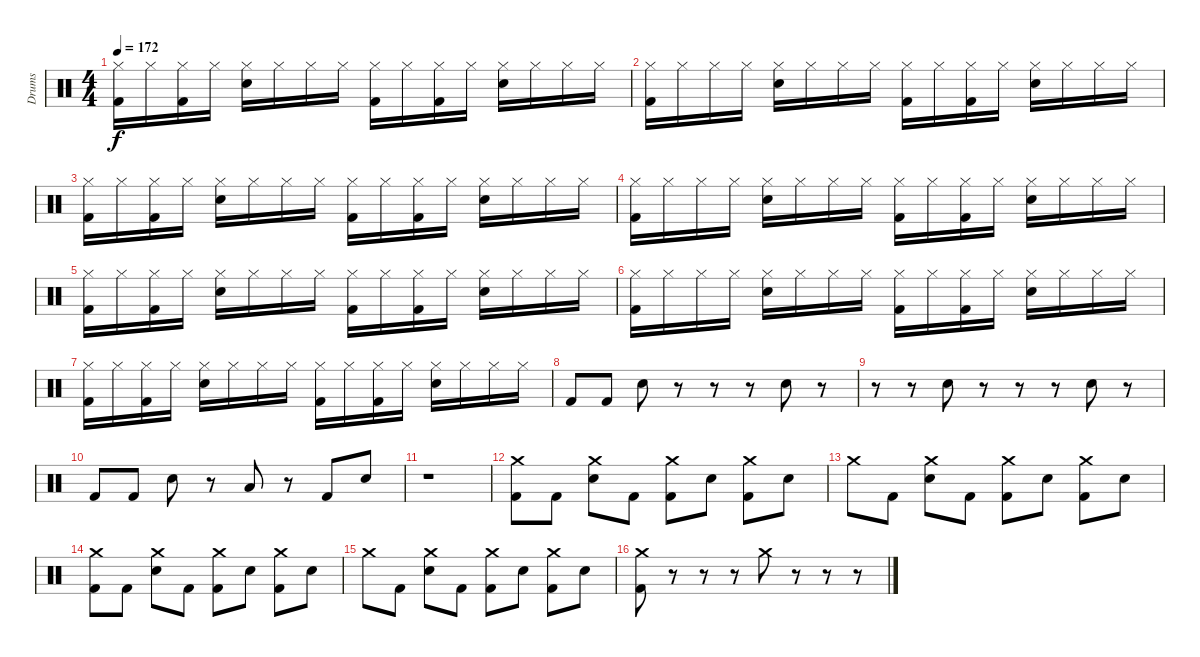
\track ("Drums" "Drums") {instrument percussion}
\staff {score}
\articulation defaults
\ts (4 4)
\tempo 172
\clef neutral
\ks c
("Hi-Hat (closed)" "Kick (hit) 2").16{dy f} "Hi-Hat (closed)".16 ("Hi-Hat (closed)" "Kick (hit) 2").16 "Hi-Hat (closed)".16 ("Hi-Hat (closed)" "Electric Snare (hit)").16 "Hi-Hat (closed)".16 "Hi-Hat (closed)".16 "Hi-Hat (closed)".16 ("Hi-Hat (closed)" "Kick (hit) 2").16 "Hi-Hat (closed)".16 ("Hi-Hat (closed)" "Kick (hit) 2").16 "Hi-Hat (closed)".16 ("Hi-Hat (closed)" "Electric Snare (hit)").16 "Hi-Hat (closed)".16 "Hi-Hat (closed)".16 "Hi-Hat (closed)".16 |
("Hi-Hat (closed)" "Kick (hit) 2").16 "Hi-Hat (closed)".16 "Hi-Hat (closed)".16 "Hi-Hat (closed)".16 ("Hi-Hat (closed)" "Electric Snare (hit)").16 "Hi-Hat (closed)".16 "Hi-Hat (closed)".16 "Hi-Hat (closed)".16 ("Hi-Hat (closed)" "Kick (hit) 2").16 "Hi-Hat (closed)".16 ("Hi-Hat (closed)" "Kick (hit) 2").16 "Hi-Hat (closed)".16 ("Hi-Hat (closed)" "Electric Snare (hit)").16 "Hi-Hat (closed)".16 "Hi-Hat (closed)".16 "Hi-Hat (closed)".16 |
("Hi-Hat (closed)" "Kick (hit) 2").16 "Hi-Hat (closed)".16 ("Hi-Hat (closed)" "Kick (hit) 2").16 "Hi-Hat (closed)".16 ("Hi-Hat (closed)" "Electric Snare (hit)").16 "Hi-Hat (closed)".16 "Hi-Hat (closed)".16 "Hi-Hat (closed)".16 ("Hi-Hat (closed)" "Kick (hit) 2").16 "Hi-Hat (closed)".16 ("Hi-Hat (closed)" "Kick (hit) 2").16 "Hi-Hat (closed)".16 ("Hi-Hat (closed)" "Electric Snare (hit)").16 "Hi-Hat (closed)".16 "Hi-Hat (closed)".16 "Hi-Hat (closed)".16 |
("Hi-Hat (closed)" "Kick (hit) 2").16 "Hi-Hat (closed)".16 "Hi-Hat (closed)".16 "Hi-Hat (closed)".16 ("Hi-Hat (closed)" "Electric Snare (hit)").16 "Hi-Hat (closed)".16 "Hi-Hat (closed)".16 "Hi-Hat (closed)".16 ("Hi-Hat (closed)" "Kick (hit) 2").16 "Hi-Hat (closed)".16 ("Hi-Hat (closed)" "Kick (hit) 2").16 "Hi-Hat (closed)".16 ("Hi-Hat (closed)" "Electric Snare (hit)").16 "Hi-Hat (closed)".16 "Hi-Hat (closed)".16 "Hi-Hat (closed)".16 |
("Hi-Hat (closed)" "Kick (hit) 2").16 "Hi-Hat (closed)".16 ("Hi-Hat (closed)" "Kick (hit) 2").16 "Hi-Hat (closed)".16 ("Hi-Hat (closed)" "Electric Snare (hit)").16 "Hi-Hat (closed)".16 "Hi-Hat (closed)".16 "Hi-Hat (closed)".16 ("Hi-Hat (closed)" "Kick (hit) 2").16 "Hi-Hat (closed)".16 ("Hi-Hat (closed)" "Kick (hit) 2").16 "Hi-Hat (closed)".16 ("Hi-Hat (closed)" "Electric Snare (hit)").16 "Hi-Hat (closed)".16 "Hi-Hat (closed)".16 "Hi-Hat (closed)".16 |
("Hi-Hat (closed)" "Kick (hit) 2").16 "Hi-Hat (closed)".16 "Hi-Hat (closed)".16 "Hi-Hat (closed)".16 ("Hi-Hat (closed)" "Electric Snare (hit)").16 "Hi-Hat (closed)".16 "Hi-Hat (closed)".16 "Hi-Hat (closed)".16 ("Hi-Hat (closed)" "Kick (hit) 2").16 "Hi-Hat (closed)".16 ("Hi-Hat (closed)" "Kick (hit) 2").16 "Hi-Hat (closed)".16 ("Hi-Hat (closed)" "Electric Snare (hit)").16 "Hi-Hat (closed)".16 "Hi-Hat (closed)".16 "Hi-Hat (closed)".16 |
("Hi-Hat (closed)" "Kick (hit) 2").16 "Hi-Hat (closed)".16 ("Hi-Hat (closed)" "Kick (hit) 2").16 "Hi-Hat (closed)".16 ("Hi-Hat (closed)" "Electric Snare (hit)").16 "Hi-Hat (closed)".16 "Hi-Hat (closed)".16 "Hi-Hat (closed)".16 ("Hi-Hat (closed)" "Kick (hit) 2").16 "Hi-Hat (closed)".16 ("Hi-Hat (closed)" "Kick (hit) 2").16 "Hi-Hat (closed)".16 ("Hi-Hat (closed)" "Electric Snare (hit)").16 "Hi-Hat (closed)".16 "Hi-Hat (closed)".16 "Hi-Hat (closed)".16 |
"Kick (hit) 2".8 "Kick (hit) 2".8 "Electric Snare (hit)".8 r.8 r.8 r.8 "Electric Snare (hit)".8 r.8 |
r.8 r.8 "Electric Snare (hit)".8 r.8 r.8 r.8 "Electric Snare (hit)".8 r.8 |
"Kick (hit) 2".8 "Kick (hit) 2".8 "Electric Snare (hit)".8 r.8 "Low Tom (hit)".8 r.8 "Kick (hit) 2".8 "Electric Snare (hit)".8 |
r.1 |
("Crash medium (hit)" "Kick (hit) 2").8 "Kick (hit) 2".8 ("Crash medium (hit)" "Electric Snare (hit)").8 "Kick (hit) 2".8 ("Crash medium (hit)" "Kick (hit) 2").8 "Electric Snare (hit)".8 ("Crash medium (hit)" "Kick (hit) 2").8 "Electric Snare (hit)".8 |
"Crash medium (hit)".8 "Kick (hit) 2".8 ("Crash medium (hit)" "Electric Snare (hit)").8 "Kick (hit) 2".8 ("Crash medium (hit)" "Kick (hit) 2").8 "Electric Snare (hit)".8 ("Crash medium (hit)" "Kick (hit) 2").8 "Electric Snare (hit)".8 |
("Crash medium (hit)" "Kick (hit) 2").8 "Kick (hit) 2".8 ("Crash medium (hit)" "Electric Snare (hit)").8 "Kick (hit) 2".8 ("Crash medium (hit)" "Kick (hit) 2").8 "Electric Snare (hit)".8 ("Crash medium (hit)" "Kick (hit) 2").8 "Electric Snare (hit)".8 |
"Crash medium (hit)".8 "Kick (hit) 2".8 ("Crash medium (hit)" "Electric Snare (hit)").8 "Kick (hit) 2".8 ("Crash medium (hit)" "Kick (hit) 2").8 "Electric Snare (hit)".8 ("Crash medium (hit)" "Kick (hit) 2").8 "Electric Snare (hit)".8 |
("Crash medium (hit)" "Kick (hit) 2").8 r.8 r.8 r.8 "Crash medium (hit)".8 r.8 r.8 r.8
